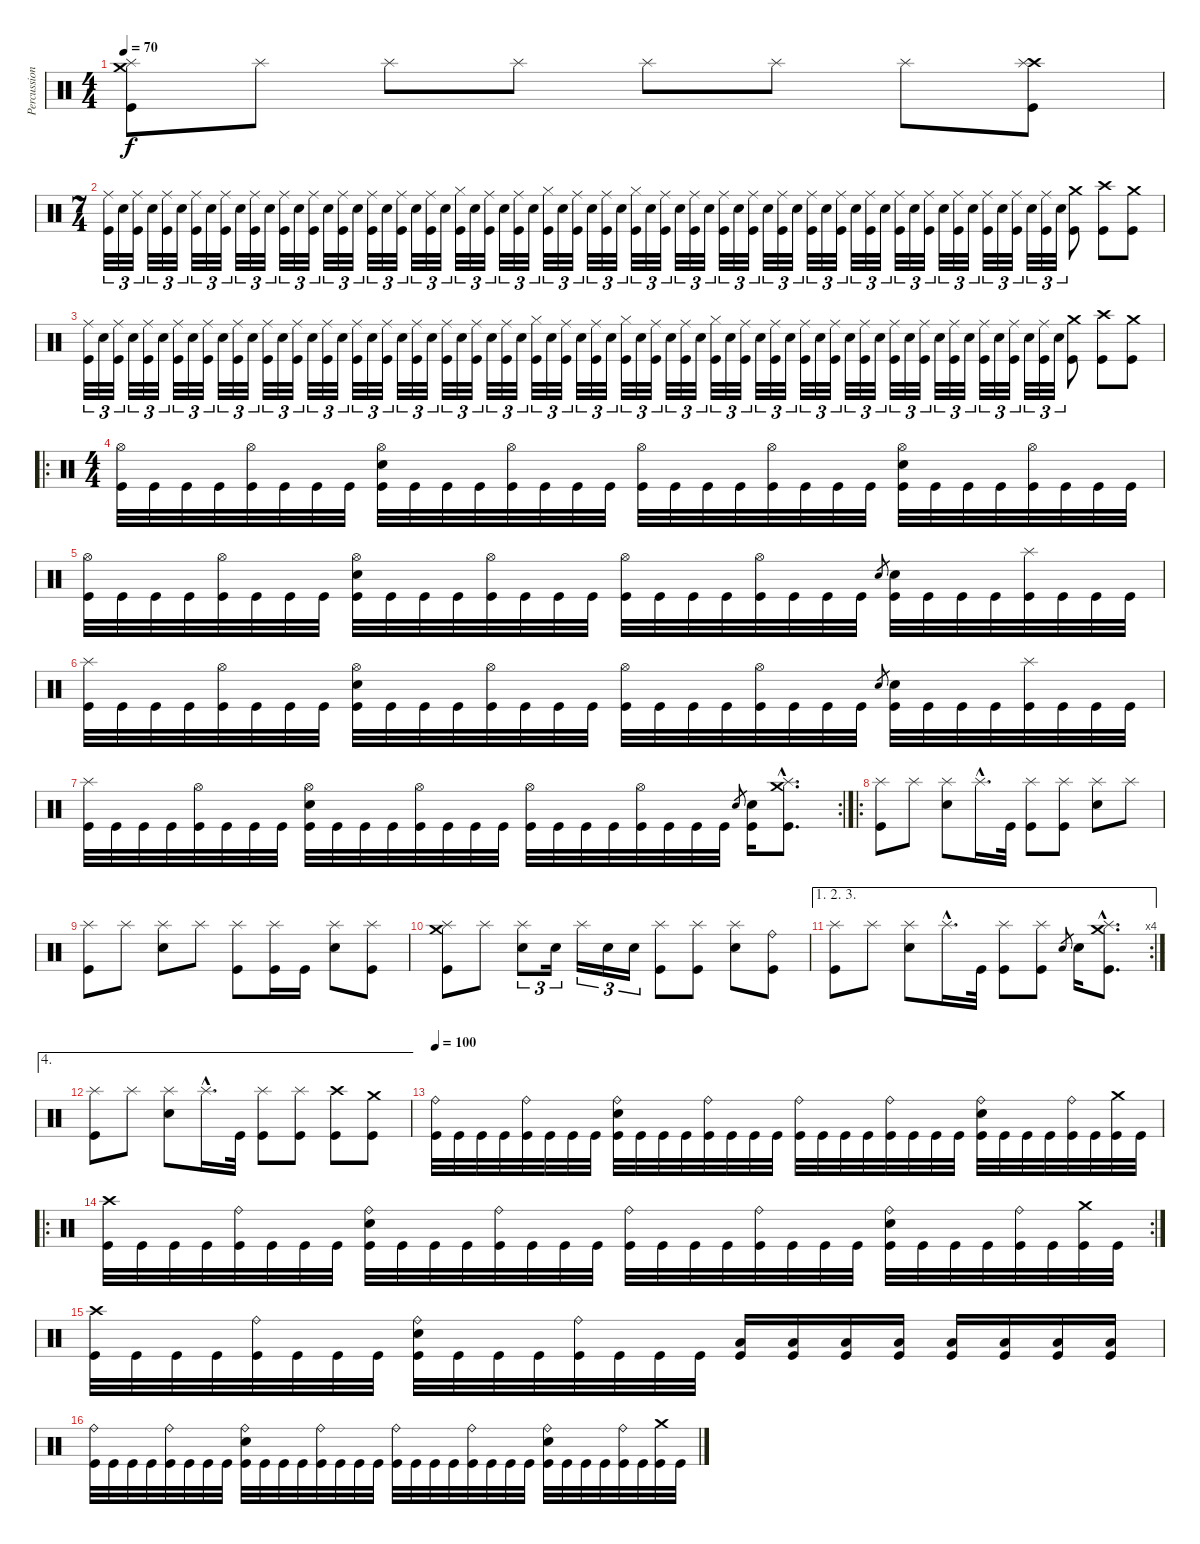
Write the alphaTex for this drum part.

\track ("Percussions" "Percussion") {instrument percussion}
\staff {score}
\articulation defaults
\ts (4 4)
\tempo 70
\clef neutral
\ks c
("Crash medium (hit)" "Splash (hit)" "Kick (hit)").8{dy f} "Splash (hit)".8 "Splash (hit)".8 "Splash (hit)".8 "Splash (hit)".8 "Splash (hit)".8 "Splash (hit)".8 ("Crash high (hit)" "Splash (hit)" "Kick (hit)").8 |
\ts (7 4)
("Ride (middle)" "Kick (hit)").32{tu (3 2)} "Electric Snare (hit)".32{tu (3 2)} ("Ride (middle)" "Kick (hit)").32{tu (3 2)} "Electric Snare (hit)".32{tu (3 2)} ("Ride (middle)" "Kick (hit)").32{tu (3 2)} "Electric Snare (hit)".32{tu (3 2)} ("Ride (middle)" "Kick (hit)").32{tu (3 2)} "Electric Snare (hit)".32{tu (3 2)} ("Ride (middle)" "Kick (hit)").32{tu (3 2)} "Electric Snare (hit)".32{tu (3 2)} ("Ride (middle)" "Kick (hit)").32{tu (3 2)} "Electric Snare (hit)".32{tu (3 2)} ("Ride (middle)" "Kick (hit)").32{tu (3 2)} "Electric Snare (hit)".32{tu (3 2)} ("Ride (middle)" "Kick (hit)").32{tu (3 2)} "Electric Snare (hit)".32{tu (3 2)} ("Ride (middle)" "Kick (hit)").32{tu (3 2)} "Electric Snare (hit)".32{tu (3 2)} ("Ride (middle)" "Kick (hit)").32{tu (3 2)} "Electric Snare (hit)".32{tu (3 2)} ("Ride (middle)" "Kick (hit)").32{tu (3 2)} "Electric Snare (hit)".32{tu (3 2)} ("Ride (middle)" "Kick (hit)").32{tu (3 2)} "Electric Snare (hit)".32{tu (3 2)} ("Hi-Hat (closed)" "Kick (hit)").32{tu (3 2)} "Electric Snare (hit)".32{tu (3 2)} ("Ride (middle)" "Kick (hit)").32{tu (3 2)} "Electric Snare (hit)".32{tu (3 2)} ("Ride (middle)" "Kick (hit)").32{tu (3 2)} "Electric Snare (hit)".32{tu (3 2)} ("Hi-Hat (closed)" "Kick (hit)").32{tu (3 2)} "Electric Snare (hit)".32{tu (3 2)} ("Ride (middle)" "Kick (hit)").32{tu (3 2)} "Electric Snare (hit)".32{tu (3 2)} ("Ride (middle)" "Kick (hit)").32{tu (3 2)} "Electric Snare (hit)".32{tu (3 2)} ("Hi-Hat (closed)" "Kick (hit)").32{tu (3 2)} "Electric Snare (hit)".32{tu (3 2)} ("Ride (middle)" "Kick (hit)").32{tu (3 2)} "Electric Snare (hit)".32{tu (3 2)} ("Ride (middle)" "Kick (hit)").32{tu (3 2)} "Electric Snare (hit)".32{tu (3 2)} ("Ride (middle)" "Kick (hit)").32{tu (3 2)} "Electric Snare (hit)".32{tu (3 2)} ("Ride (middle)" "Kick (hit)").32{tu (3 2)} "Electric Snare (hit)".32{tu (3 2)} ("Ride (middle)" "Kick (hit)").32{tu (3 2)} "Electric Snare (hit)".32{tu (3 2)} ("Ride (middle)" "Kick (hit)").32{tu (3 2)} "Electric Snare (hit)".32{tu (3 2)} ("Ride (middle)" "Kick (hit)").32{tu (3 2)} "Electric Snare (hit)".32{tu (3 2)} ("Ride (middle)" "Kick (hit)").32{tu (3 2)} "Electric Snare (hit)".32{tu (3 2)} ("Ride (middle)" "Kick (hit)").32{tu (3 2)} "Electric Snare (hit)".32{tu (3 2)} ("Ride (middle)" "Kick (hit)").32{tu (3 2)} "Electric Snare (hit)".32{tu (3 2)} ("Ride (middle)" "Kick (hit)").32{tu (3 2)} "Electric Snare (hit)".32{tu (3 2)} ("Ride (middle)" "Kick (hit)").32{tu (3 2)} "Electric Snare (hit)".32{tu (3 2)} ("Ride (middle)" "Kick (hit)").32{tu (3 2)} "Electric Snare (hit)".32{tu (3 2)} ("Ride (middle)" "Kick (hit)").32{tu (3 2)} "Electric Snare (hit)".32{tu (3 2)} ("Crash medium (hit)" "Kick (hit)").8 ("Crash high (hit)" "Kick (hit)").8 ("Crash medium (hit)" "Kick (hit)").8 |
("Ride (middle)" "Kick (hit)").32{tu (3 2)} "Electric Snare (hit)".32{tu (3 2)} ("Ride (middle)" "Kick (hit)").32{tu (3 2)} "Electric Snare (hit)".32{tu (3 2)} ("Ride (middle)" "Kick (hit)").32{tu (3 2)} "Electric Snare (hit)".32{tu (3 2)} ("Ride (middle)" "Kick (hit)").32{tu (3 2)} "Electric Snare (hit)".32{tu (3 2)} ("Ride (middle)" "Kick (hit)").32{tu (3 2)} "Electric Snare (hit)".32{tu (3 2)} ("Ride (middle)" "Kick (hit)").32{tu (3 2)} "Electric Snare (hit)".32{tu (3 2)} ("Ride (middle)" "Kick (hit)").32{tu (3 2)} "Electric Snare (hit)".32{tu (3 2)} ("Ride (middle)" "Kick (hit)").32{tu (3 2)} "Electric Snare (hit)".32{tu (3 2)} ("Ride (middle)" "Kick (hit)").32{tu (3 2)} "Electric Snare (hit)".32{tu (3 2)} ("Ride (middle)" "Kick (hit)").32{tu (3 2)} "Electric Snare (hit)".32{tu (3 2)} ("Ride (middle)" "Kick (hit)").32{tu (3 2)} "Electric Snare (hit)".32{tu (3 2)} ("Ride (middle)" "Kick (hit)").32{tu (3 2)} "Electric Snare (hit)".32{tu (3 2)} ("Ride (middle)" "Kick (hit)").32{tu (3 2)} "Electric Snare (hit)".32{tu (3 2)} ("Ride (middle)" "Kick (hit)").32{tu (3 2)} "Electric Snare (hit)".32{tu (3 2)} ("Ride (middle)" "Kick (hit)").32{tu (3 2)} "Electric Snare (hit)".32{tu (3 2)} ("Hi-Hat (closed)" "Kick (hit)").32{tu (3 2)} "Electric Snare (hit)".32{tu (3 2)} ("Ride (middle)" "Kick (hit)").32{tu (3 2)} "Electric Snare (hit)".32{tu (3 2)} ("Ride (middle)" "Kick (hit)").32{tu (3 2)} "Electric Snare (hit)".32{tu (3 2)} ("Hi-Hat (closed)" "Kick (hit)").32{tu (3 2)} "Electric Snare (hit)".32{tu (3 2)} ("Ride (middle)" "Kick (hit)").32{tu (3 2)} "Electric Snare (hit)".32{tu (3 2)} ("Ride (middle)" "Kick (hit)").32{tu (3 2)} "Electric Snare (hit)".32{tu (3 2)} ("Hi-Hat (closed)" "Kick (hit)").32{tu (3 2)} "Electric Snare (hit)".32{tu (3 2)} ("Ride (middle)" "Kick (hit)").32{tu (3 2)} "Electric Snare (hit)".32{tu (3 2)} ("Ride (middle)" "Kick (hit)").32{tu (3 2)} "Electric Snare (hit)".32{tu (3 2)} ("Ride (middle)" "Kick (hit)").32{tu (3 2)} "Electric Snare (hit)".32{tu (3 2)} ("Ride (middle)" "Kick (hit)").32{tu (3 2)} "Electric Snare (hit)".32{tu (3 2)} ("Ride (middle)" "Kick (hit)").32{tu (3 2)} "Electric Snare (hit)".32{tu (3 2)} ("Ride (middle)" "Kick (hit)").32{tu (3 2)} "Electric Snare (hit)".32{tu (3 2)} ("Ride (middle)" "Kick (hit)").32{tu (3 2)} "Electric Snare (hit)".32{tu (3 2)} ("Ride (middle)" "Kick (hit)").32{tu (3 2)} "Electric Snare (hit)".32{tu (3 2)} ("Ride (middle)" "Kick (hit)").32{tu (3 2)} "Electric Snare (hit)".32{tu (3 2)} ("Ride (middle)" "Kick (hit)").32{tu (3 2)} "Electric Snare (hit)".32{tu (3 2)} ("Ride (middle)" "Kick (hit)").32{tu (3 2)} "Electric Snare (hit)".32{tu (3 2)} ("Crash medium (hit)" "Kick (hit)").8 ("Crash high (hit)" "Kick (hit)").8 ("Crash medium (hit)" "Kick (hit)").8 |
\ro
\ts (4 4)
("Hi-Hat (open)" "Kick (hit)").32 "Kick (hit)".32 "Kick (hit)".32 "Kick (hit)".32 ("Hi-Hat (open)" "Kick (hit)").32 "Kick (hit)".32 "Kick (hit)".32 "Kick (hit)".32 ("Hi-Hat (open)" "Electric Snare (hit)" "Kick (hit)").32 "Kick (hit)".32 "Kick (hit)".32 "Kick (hit)".32 ("Hi-Hat (open)" "Kick (hit)").32 "Kick (hit)".32 "Kick (hit)".32 "Kick (hit)".32 ("Hi-Hat (open)" "Kick (hit)").32 "Kick (hit)".32 "Kick (hit)".32 "Kick (hit)".32 ("Hi-Hat (open)" "Kick (hit)").32 "Kick (hit)".32 "Kick (hit)".32 "Kick (hit)".32 ("Hi-Hat (open)" "Electric Snare (hit)" "Kick (hit)").32 "Kick (hit)".32 "Kick (hit)".32 "Kick (hit)".32 ("Hi-Hat (open)" "Kick (hit)").32 "Kick (hit)".32 "Kick (hit)".32 "Kick (hit)".32 |
("Hi-Hat (open)" "Kick (hit)").32 "Kick (hit)".32 "Kick (hit)".32 "Kick (hit)".32 ("Hi-Hat (open)" "Kick (hit)").32 "Kick (hit)".32 "Kick (hit)".32 "Kick (hit)".32 ("Hi-Hat (open)" "Electric Snare (hit)" "Kick (hit)").32 "Kick (hit)".32 "Kick (hit)".32 "Kick (hit)".32 ("Hi-Hat (open)" "Kick (hit)").32 "Kick (hit)".32 "Kick (hit)".32 "Kick (hit)".32 ("Hi-Hat (open)" "Kick (hit)").32 "Kick (hit)".32 "Kick (hit)".32 "Kick (hit)".32 ("Hi-Hat (open)" "Kick (hit)").32 "Kick (hit)".32 "Kick (hit)".32 "Kick (hit)".32 "Electric Snare (hit)".8{gr} ("Electric Snare (hit)" "Kick (hit)").32 "Kick (hit)".32 "Kick (hit)".32 "Kick (hit)".32 ("Splash (hit)" "Kick (hit)").32 "Kick (hit)".32 "Kick (hit)".32 "Kick (hit)".32 |
("Splash (hit)" "Kick (hit)").32 "Kick (hit)".32 "Kick (hit)".32 "Kick (hit)".32 ("Hi-Hat (open)" "Kick (hit)").32 "Kick (hit)".32 "Kick (hit)".32 "Kick (hit)".32 ("Hi-Hat (open)" "Electric Snare (hit)" "Kick (hit)").32 "Kick (hit)".32 "Kick (hit)".32 "Kick (hit)".32 ("Hi-Hat (open)" "Kick (hit)").32 "Kick (hit)".32 "Kick (hit)".32 "Kick (hit)".32 ("Hi-Hat (open)" "Kick (hit)").32 "Kick (hit)".32 "Kick (hit)".32 "Kick (hit)".32 ("Hi-Hat (open)" "Kick (hit)").32 "Kick (hit)".32 "Kick (hit)".32 "Kick (hit)".32 "Electric Snare (hit)".8{gr} ("Electric Snare (hit)" "Kick (hit)").32 "Kick (hit)".32 "Kick (hit)".32 "Kick (hit)".32 ("Splash (hit)" "Kick (hit)").32 "Kick (hit)".32 "Kick (hit)".32 "Kick (hit)".32 |
\rc 2
("Splash (hit)" "Kick (hit)").32 "Kick (hit)".32 "Kick (hit)".32 "Kick (hit)".32 ("Hi-Hat (open)" "Kick (hit)").32 "Kick (hit)".32 "Kick (hit)".32 "Kick (hit)".32 ("Hi-Hat (open)" "Electric Snare (hit)" "Kick (hit)").32 "Kick (hit)".32 "Kick (hit)".32 "Kick (hit)".32 ("Hi-Hat (open)" "Kick (hit)").32 "Kick (hit)".32 "Kick (hit)".32 "Kick (hit)".32 ("Hi-Hat (open)" "Kick (hit)").32 "Kick (hit)".32 "Kick (hit)".32 "Kick (hit)".32 ("Hi-Hat (open)" "Kick (hit)").32 "Kick (hit)".32 "Kick (hit)".32 "Kick (hit)".32 "Electric Snare (hit)".8{gr} ("Electric Snare (hit)" "Kick (hit)").16 ("Splash (hit)"{hac} "Crash medium (hit)"{hac} "Kick (hit)"{hac}).8{d} |
\ro
("Splash (hit)" "Kick (hit)").8 "Splash (hit)".8 ("Splash (hit)" "Electric Snare (hit)").8 "Splash (hit)"{hac}.16{d} "Kick (hit)".32 ("Splash (hit)" "Kick (hit)").8 ("Splash (hit)" "Kick (hit)").8 ("Splash (hit)" "Electric Snare (hit)").8 "Splash (hit)".8 |
("Splash (hit)" "Kick (hit)").8 "Splash (hit)".8 ("Splash (hit)" "Electric Snare (hit)").8 "Splash (hit)".8 ("Splash (hit)" "Kick (hit)").8 ("Splash (hit)" "Kick (hit)").16 "Kick (hit)".16 ("Splash (hit)" "Electric Snare (hit)").8 ("Splash (hit)" "Kick (hit)").8 |
("Crash medium (hit)" "Splash (hit)" "Kick (hit)").8 "Splash (hit)".8 ("Splash (hit)" "Electric Snare (hit)").8{tu (3 2)} "Electric Snare (hit)".16{tu (3 2)} "Splash (hit)".16{tu (3 2)} "Electric Snare (hit)".16{tu (3 2)} "Electric Snare (hit)".16{tu (3 2)} ("Splash (hit)" "Kick (hit)").8 ("Splash (hit)" "Kick (hit)").8 ("Splash (hit)" "Electric Snare (hit)").8 ("Ride (bell)" "Kick (hit)").8 |
\ae (1 2 3)
\rc 4
("Splash (hit)" "Kick (hit)").8 "Splash (hit)".8 ("Splash (hit)" "Electric Snare (hit)").8 "Splash (hit)"{hac}.16{d} "Kick (hit)".32 ("Splash (hit)" "Kick (hit)").8 ("Splash (hit)" "Kick (hit)").8 "Electric Snare (hit)".8{gr} "Electric Snare (hit)".16 ("Crash medium (hit)"{hac} "Splash (hit)"{hac} "Kick (hit)"{hac}).8{d} |
\ae 4
("Splash (hit)" "Kick (hit)").8 "Splash (hit)".8 ("Splash (hit)" "Electric Snare (hit)").8 "Splash (hit)"{hac}.16{d} "Kick (hit)".32 ("Splash (hit)" "Kick (hit)").8 ("Splash (hit)" "Kick (hit)").8 ("Crash high (hit)" "Kick (hit)").8 ("Crash medium (hit)" "Kick (hit)").8 |
\tempo 100
("Ride (bell)" "Kick (hit)").32 "Kick (hit)".32 "Kick (hit)".32 "Kick (hit)".32 ("Ride (bell)" "Kick (hit)").32 "Kick (hit)".32 "Kick (hit)".32 "Kick (hit)".32 ("Electric Snare (hit)" "Ride (bell)" "Kick (hit)").32 "Kick (hit)".32 "Kick (hit)".32 "Kick (hit)".32 ("Ride (bell)" "Kick (hit)").32 "Kick (hit)".32 "Kick (hit)".32 "Kick (hit)".32 ("Ride (bell)" "Kick (hit)").32 "Kick (hit)".32 "Kick (hit)".32 "Kick (hit)".32 ("Ride (bell)" "Kick (hit)").32 "Kick (hit)".32 "Kick (hit)".32 "Kick (hit)".32 ("Electric Snare (hit)" "Ride (bell)" "Kick (hit)").32 "Kick (hit)".32 "Kick (hit)".32 "Kick (hit)".32 ("Ride (bell)" "Kick (hit)").32 "Kick (hit)".32 ("Crash medium (hit)" "Kick (hit)").32 "Kick (hit)".32 |
\ro
\rc 2
("Crash high (hit)" "Kick (hit)").32 "Kick (hit)".32 "Kick (hit)".32 "Kick (hit)".32 ("Ride (bell)" "Kick (hit)").32 "Kick (hit)".32 "Kick (hit)".32 "Kick (hit)".32 ("Electric Snare (hit)" "Ride (bell)" "Kick (hit)").32 "Kick (hit)".32 "Kick (hit)".32 "Kick (hit)".32 ("Ride (bell)" "Kick (hit)").32 "Kick (hit)".32 "Kick (hit)".32 "Kick (hit)".32 ("Ride (bell)" "Kick (hit)").32 "Kick (hit)".32 "Kick (hit)".32 "Kick (hit)".32 ("Ride (bell)" "Kick (hit)").32 "Kick (hit)".32 "Kick (hit)".32 "Kick (hit)".32 ("Electric Snare (hit)" "Ride (bell)" "Kick (hit)").32 "Kick (hit)".32 "Kick (hit)".32 "Kick (hit)".32 ("Ride (bell)" "Kick (hit)").32 "Kick (hit)".32 ("Crash medium (hit)" "Kick (hit)").32 "Kick (hit)".32 |
("Crash high (hit)" "Kick (hit)").32 "Kick (hit)".32 "Kick (hit)".32 "Kick (hit)".32 ("Ride (bell)" "Kick (hit)").32 "Kick (hit)".32 "Kick (hit)".32 "Kick (hit)".32 ("Electric Snare (hit)" "Ride (bell)" "Kick (hit)").32 "Kick (hit)".32 "Kick (hit)".32 "Kick (hit)".32 ("Ride (bell)" "Kick (hit)").32 "Kick (hit)".32 "Kick (hit)".32 "Kick (hit)".32 ("Low Floor Tom (hit)" "Kick (hit)").16 ("Low Floor Tom (hit)" "Kick (hit)").16 ("Low Floor Tom (hit)" "Kick (hit)").16 ("Low Floor Tom (hit)" "Kick (hit)").16 ("Low Floor Tom (hit)" "Kick (hit)").16 ("Low Floor Tom (hit)" "Kick (hit)").16 ("Low Floor Tom (hit)" "Kick (hit)").16 ("Low Floor Tom (hit)" "Kick (hit)").16 |
("Ride (bell)" "Kick (hit)").32 "Kick (hit)".32 "Kick (hit)".32 "Kick (hit)".32 ("Ride (bell)" "Kick (hit)").32 "Kick (hit)".32 "Kick (hit)".32 "Kick (hit)".32 ("Electric Snare (hit)" "Ride (bell)" "Kick (hit)").32 "Kick (hit)".32 "Kick (hit)".32 "Kick (hit)".32 ("Ride (bell)" "Kick (hit)").32 "Kick (hit)".32 "Kick (hit)".32 "Kick (hit)".32 ("Ride (bell)" "Kick (hit)").32 "Kick (hit)".32 "Kick (hit)".32 "Kick (hit)".32 ("Ride (bell)" "Kick (hit)").32 "Kick (hit)".32 "Kick (hit)".32 "Kick (hit)".32 ("Electric Snare (hit)" "Ride (bell)" "Kick (hit)").32 "Kick (hit)".32 "Kick (hit)".32 "Kick (hit)".32 ("Ride (bell)" "Kick (hit)").32 "Kick (hit)".32 ("Crash medium (hit)" "Kick (hit)").32 "Kick (hit)".32
